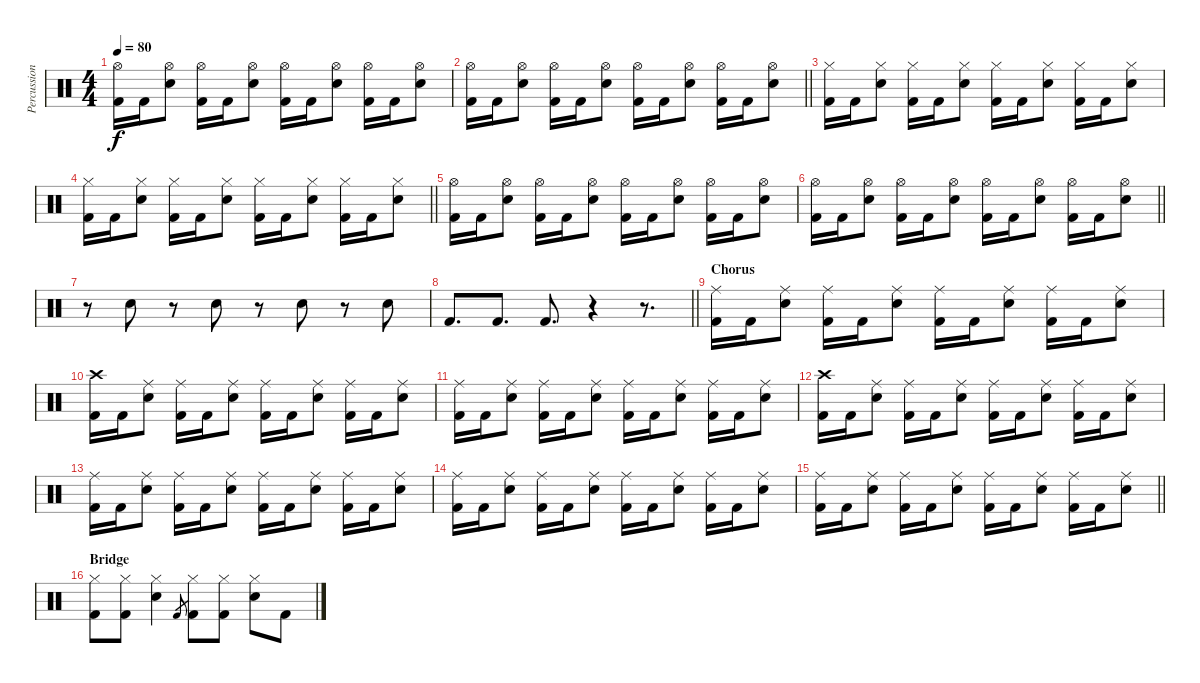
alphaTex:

\track ("Percussion" "Percussion") {instrument percussion}
\staff {score}
\articulation defaults
\ts (4 4)
\tempo 80
\clef neutral
\ks c
("Hi-Hat (open)" "Kick (hit) 2").16{dy f} "Kick (hit) 2".16 ("Hi-Hat (open)" "Snare (hit) 2").8 ("Hi-Hat (open)" "Kick (hit) 2").16 "Kick (hit) 2".16 ("Hi-Hat (open)" "Snare (hit) 2").8 ("Hi-Hat (open)" "Kick (hit) 2").16 "Kick (hit) 2".16 ("Hi-Hat (open)" "Snare (hit) 2").8 ("Hi-Hat (open)" "Kick (hit) 2").16 "Kick (hit) 2".16 ("Hi-Hat (open)" "Snare (hit) 2").8 |
\barLineRight lightlight
("Hi-Hat (open)" "Kick (hit) 2").16 "Kick (hit) 2".16 ("Hi-Hat (open)" "Snare (hit) 2").8 ("Hi-Hat (open)" "Kick (hit) 2").16 "Kick (hit) 2".16 ("Hi-Hat (open)" "Snare (hit) 2").8 ("Hi-Hat (open)" "Kick (hit) 2").16 "Kick (hit) 2".16 ("Hi-Hat (open)" "Snare (hit) 2").8 ("Hi-Hat (open)" "Kick (hit) 2").16 "Kick (hit) 2".16 ("Hi-Hat (open)" "Snare (hit) 2").8 |
("Hi-Hat (closed)" "Kick (hit) 2").16 "Kick (hit) 2".16 ("Hi-Hat (closed)" "Snare (hit) 2").8 ("Hi-Hat (closed)" "Kick (hit) 2").16 "Kick (hit) 2".16 ("Hi-Hat (closed)" "Snare (hit) 2").8 ("Hi-Hat (closed)" "Kick (hit) 2").16 "Kick (hit) 2".16 ("Hi-Hat (closed)" "Snare (hit) 2").8 ("Hi-Hat (closed)" "Kick (hit) 2").16 "Kick (hit) 2".16 ("Hi-Hat (closed)" "Snare (hit) 2").8 |
\barLineRight lightlight
("Hi-Hat (closed)" "Kick (hit) 2").16 "Kick (hit) 2".16 ("Hi-Hat (closed)" "Snare (hit) 2").8 ("Hi-Hat (closed)" "Kick (hit) 2").16 "Kick (hit) 2".16 ("Hi-Hat (closed)" "Snare (hit) 2").8 ("Hi-Hat (closed)" "Kick (hit) 2").16 "Kick (hit) 2".16 ("Hi-Hat (closed)" "Snare (hit) 2").8 ("Hi-Hat (closed)" "Kick (hit) 2").16 "Kick (hit) 2".16 ("Hi-Hat (closed)" "Snare (hit) 2").8 |
("Hi-Hat (open)" "Kick (hit) 2").16 "Kick (hit) 2".16 ("Hi-Hat (open)" "Snare (hit) 2").8 ("Hi-Hat (open)" "Kick (hit) 2").16 "Kick (hit) 2".16 ("Hi-Hat (open)" "Snare (hit) 2").8 ("Hi-Hat (open)" "Kick (hit) 2").16 "Kick (hit) 2".16 ("Hi-Hat (open)" "Snare (hit) 2").8 ("Hi-Hat (open)" "Kick (hit) 2").16 "Kick (hit) 2".16 ("Hi-Hat (open)" "Snare (hit) 2").8 |
\barLineRight lightlight
("Hi-Hat (open)" "Kick (hit) 2").16 "Kick (hit) 2".16 ("Hi-Hat (open)" "Snare (hit) 2").8 ("Hi-Hat (open)" "Kick (hit) 2").16 "Kick (hit) 2".16 ("Hi-Hat (open)" "Snare (hit) 2").8 ("Hi-Hat (open)" "Kick (hit) 2").16 "Kick (hit) 2".16 ("Hi-Hat (open)" "Snare (hit) 2").8 ("Hi-Hat (open)" "Kick (hit) 2").16 "Kick (hit) 2".16 ("Hi-Hat (open)" "Snare (hit) 2").8 |
r.8 "Snare (hit) 2".8 r.8 "Snare (hit) 2".8 r.8 "Snare (hit) 2".8 r.8 "Snare (hit) 2".8 |
\barLineRight lightlight "Kick (hit) 2".8{d} "Kick (hit) 2".8{d} "Kick (hit) 2".8{d}
r.4 r.8{d} |
\section ("" "Chorus")
("Ride (middle)" "Kick (hit) 2").16 "Kick (hit) 2".16 ("Ride (middle)" "Snare (hit) 2").8 ("Ride (middle)" "Kick (hit) 2").16 "Kick (hit) 2".16 ("Ride (middle)" "Snare (hit) 2").8 ("Ride (middle)" "Kick (hit) 2").16 "Kick (hit) 2".16 ("Ride (middle)" "Snare (hit) 2").8 ("Ride (middle)" "Kick (hit) 2").16 "Kick (hit) 2".16 ("Ride (middle)" "Snare (hit) 2").8 |
("Crash high (hit)" "Kick (hit) 2").16 "Kick (hit) 2".16 ("Ride (middle)" "Snare (hit) 2").8 ("Ride (middle)" "Kick (hit) 2").16 "Kick (hit) 2".16 ("Ride (middle)" "Snare (hit) 2").8 ("Ride (middle)" "Kick (hit) 2").16 "Kick (hit) 2".16 ("Ride (middle)" "Snare (hit) 2").8 ("Ride (middle)" "Kick (hit) 2").16 "Kick (hit) 2".16 ("Ride (middle)" "Snare (hit) 2").8 |
("Ride (middle)" "Kick (hit) 2").16 "Kick (hit) 2".16 ("Ride (middle)" "Snare (hit) 2").8 ("Ride (middle)" "Kick (hit) 2").16 "Kick (hit) 2".16 ("Ride (middle)" "Snare (hit) 2").8 ("Ride (middle)" "Kick (hit) 2").16 "Kick (hit) 2".16 ("Ride (middle)" "Snare (hit) 2").8 ("Ride (middle)" "Kick (hit) 2").16 "Kick (hit) 2".16 ("Ride (middle)" "Snare (hit) 2").8 |
("Crash high (hit)" "Kick (hit) 2").16 "Kick (hit) 2".16 ("Ride (middle)" "Snare (hit) 2").8 ("Ride (middle)" "Kick (hit) 2").16 "Kick (hit) 2".16 ("Ride (middle)" "Snare (hit) 2").8 ("Ride (middle)" "Kick (hit) 2").16 "Kick (hit) 2".16 ("Ride (middle)" "Snare (hit) 2").8 ("Ride (middle)" "Kick (hit) 2").16 "Kick (hit) 2".16 ("Ride (middle)" "Snare (hit) 2").8 |
("Ride (middle)" "Kick (hit) 2").16 "Kick (hit) 2".16 ("Ride (middle)" "Snare (hit) 2").8 ("Ride (middle)" "Kick (hit) 2").16 "Kick (hit) 2".16 ("Ride (middle)" "Snare (hit) 2").8 ("Ride (middle)" "Kick (hit) 2").16 "Kick (hit) 2".16 ("Ride (middle)" "Snare (hit) 2").8 ("Ride (middle)" "Kick (hit) 2").16 "Kick (hit) 2".16 ("Ride (middle)" "Snare (hit) 2").8 |
("Ride (middle)" "Kick (hit) 2").16 "Kick (hit) 2".16 ("Ride (middle)" "Snare (hit) 2").8 ("Ride (middle)" "Kick (hit) 2").16 "Kick (hit) 2".16 ("Ride (middle)" "Snare (hit) 2").8 ("Ride (middle)" "Kick (hit) 2").16 "Kick (hit) 2".16 ("Ride (middle)" "Snare (hit) 2").8 ("Ride (middle)" "Kick (hit) 2").16 "Kick (hit) 2".16 ("Ride (middle)" "Snare (hit) 2").8 |
\barLineRight lightlight
("Ride (middle)" "Kick (hit) 2").16 "Kick (hit) 2".16 ("Ride (middle)" "Snare (hit) 2").8 ("Ride (middle)" "Kick (hit) 2").16 "Kick (hit) 2".16 ("Ride (middle)" "Snare (hit) 2").8 ("Ride (middle)" "Kick (hit) 2").16 "Kick (hit) 2".16 ("Ride (middle)" "Snare (hit) 2").8 ("Ride (middle)" "Kick (hit) 2").16 "Kick (hit) 2".16 ("Ride (middle)" "Snare (hit) 2").8 |
\section ("" "Bridge")
("Hi-Hat (closed)" "Kick (hit) 2").8 ("Hi-Hat (closed)" "Kick (hit) 2").8 ("Hi-Hat (closed)" "Snare (hit) 2").4 "Kick (hit) 2".8{gr} ("Hi-Hat (closed)" "Kick (hit) 2").8 ("Hi-Hat (closed)" "Kick (hit) 2").8 ("Hi-Hat (closed)" "Snare (hit) 2").8 "Kick (hit) 2".8
